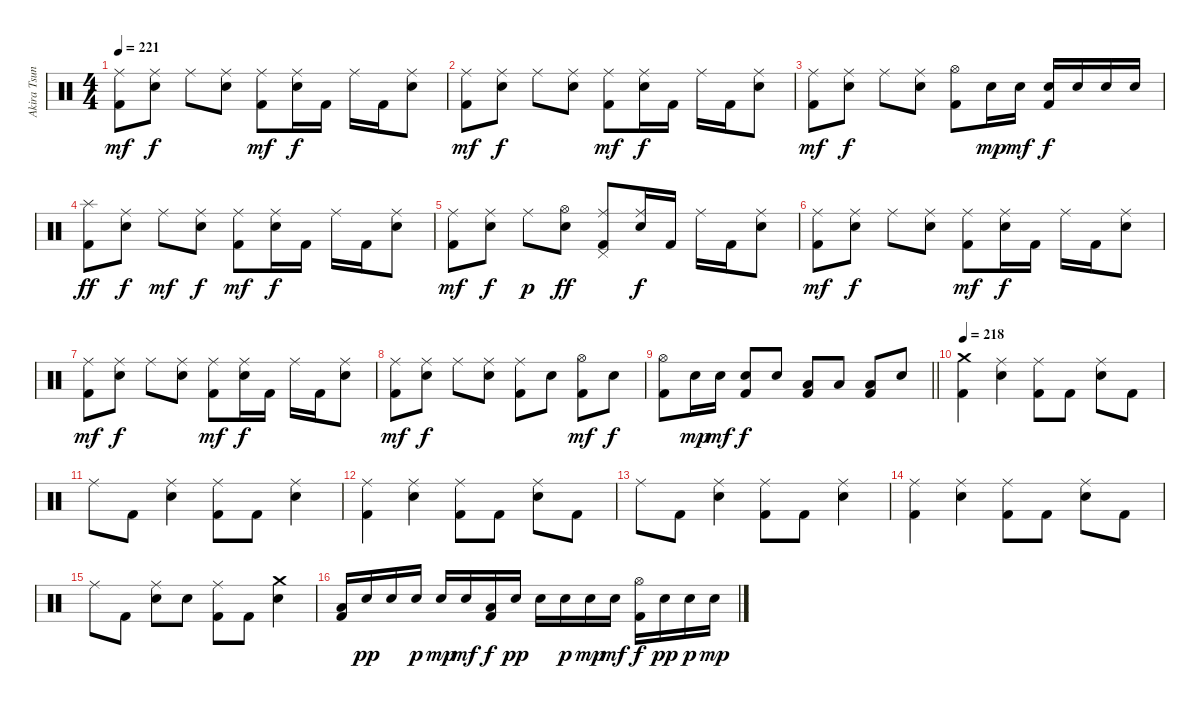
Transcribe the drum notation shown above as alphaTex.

\track ("Akira Tsuneoka" "Akira Tsun") {instrument percussion}
\staff {score}
\articulation defaults
\ts (4 4)
\tempo 221
\clef neutral
\ks c
("Ride (middle)" "Kick (hit) 2").8{dy mf} ("Ride (middle)" "Electric Snare (hit)").8{dy f} "Ride (middle)".8 ("Ride (middle)" "Electric Snare (hit)").8 ("Ride (middle)" "Kick (hit) 2").8{dy mf} ("Ride (middle)" "Electric Snare (hit)").16{dy f} "Kick (hit) 2".16 "Ride (middle)".16 "Kick (hit) 2".16 ("Ride (middle)" "Electric Snare (hit)").8 |
("Ride (middle)" "Kick (hit) 2").8{dy mf} ("Ride (middle)" "Electric Snare (hit)").8{dy f} "Ride (middle)".8 ("Ride (middle)" "Electric Snare (hit)").8 ("Ride (middle)" "Kick (hit) 2").8{dy mf} ("Ride (middle)" "Electric Snare (hit)").16{dy f} "Kick (hit) 2".16 "Ride (middle)".16 "Kick (hit) 2".16 ("Ride (middle)" "Electric Snare (hit)").8 |
("Ride (middle)" "Kick (hit) 2").8{dy mf} ("Ride (middle)" "Electric Snare (hit)").8{dy f} "Ride (middle)".8 ("Ride (middle)" "Electric Snare (hit)").8 ("Hi-Hat (open)" "Kick (hit) 2").8 "Electric Snare (hit)".16{dy mp} "Electric Snare (hit)".16{dy mf} ("Electric Snare (hit)" "Kick (hit) 2").16{dy f} "Electric Snare (hit)".16 "Electric Snare (hit)".16 "Electric Snare (hit)".16 |
("Splash (hit)" "Kick (hit) 2").8{dy ff} ("Ride (middle)" "Electric Snare (hit)").8{dy f} "Ride (middle)".8{dy mf} ("Ride (middle)" "Electric Snare (hit)").8{dy f} ("Ride (middle)" "Kick (hit) 2").8{dy mf} ("Ride (middle)" "Electric Snare (hit)").16{dy f} "Kick (hit) 2".16 "Ride (middle)".16 "Kick (hit) 2".16 ("Ride (middle)" "Electric Snare (hit)").8 |
("Ride (middle)" "Kick (hit) 2").8{dy mf} ("Ride (middle)" "Electric Snare (hit)").8{dy f} "Ride (middle)".8{dy p} ("Hi-Hat (open)" "Electric Snare (hit)").8{dy ff} ("Ride (middle)" "Pedal Hi-Hat (hit)" "Kick (hit) 2").8 ("Ride (middle)" "Electric Snare (hit)").16{dy f} "Kick (hit) 2".16 "Ride (middle)".16 "Kick (hit) 2".16 ("Ride (middle)" "Electric Snare (hit)").8 |
("Ride (middle)" "Kick (hit) 2").8{dy mf} ("Ride (middle)" "Electric Snare (hit)").8{dy f} "Ride (middle)".8 ("Ride (middle)" "Electric Snare (hit)").8 ("Ride (middle)" "Kick (hit) 2").8{dy mf} ("Ride (middle)" "Electric Snare (hit)").16{dy f} "Kick (hit) 2".16 "Ride (middle)".16 "Kick (hit) 2".16 ("Ride (middle)" "Electric Snare (hit)").8 |
("Ride (middle)" "Kick (hit) 2").8{dy mf} ("Ride (middle)" "Electric Snare (hit)").8{dy f} "Ride (middle)".8 ("Ride (middle)" "Electric Snare (hit)").8 ("Ride (middle)" "Kick (hit) 2").8{dy mf} ("Ride (middle)" "Electric Snare (hit)").16{dy f} "Kick (hit) 2".16 "Ride (middle)".16 "Kick (hit) 2".16 ("Ride (middle)" "Electric Snare (hit)").8 |
("Ride (middle)" "Kick (hit) 2").8{dy mf} ("Ride (middle)" "Electric Snare (hit)").8{dy f} "Ride (middle)".8 ("Ride (middle)" "Electric Snare (hit)").8 ("Ride (middle)" "Kick (hit) 2").8 "Electric Snare (hit)".8 ("Hi-Hat (open)" "Kick (hit) 2").8{dy mf} "Electric Snare (hit)".8{dy f} |
\barLineRight lightlight
("Hi-Hat (open)" "Kick (hit) 2").8 "Electric Snare (hit)".16{dy mp} "Electric Snare (hit)".16{dy mf} ("Electric Snare (hit)" "Kick (hit) 2").8{dy f} "Electric Snare (hit)".8 ("Low Tom (hit)" "Kick (hit) 2").8 "Low Tom (hit)".8 ("Low Floor Tom (hit)" "Kick (hit) 2").8 "Electric Snare (hit)".8 |
\section ("" "")
\tempo 218
("Crash medium (hit)" "Kick (hit) 2").4 ("Ride (middle)" "Electric Snare (hit)").4 ("Ride (middle)" "Kick (hit) 2").8 "Kick (hit) 2".8 ("Ride (middle)" "Electric Snare (hit)").8 "Kick (hit) 2".8 |
"Ride (middle)".8 "Kick (hit) 2".8 ("Ride (middle)" "Electric Snare (hit)").4 ("Ride (middle)" "Kick (hit) 2").8 "Kick (hit) 2".8 ("Ride (middle)" "Electric Snare (hit)").4 |
("Ride (middle)" "Kick (hit) 2").4 ("Ride (middle)" "Electric Snare (hit)").4 ("Ride (middle)" "Kick (hit) 2").8 "Kick (hit) 2".8 ("Ride (middle)" "Electric Snare (hit)").8 "Kick (hit) 2".8 |
"Ride (middle)".8 "Kick (hit) 2".8 ("Ride (middle)" "Electric Snare (hit)").4 ("Ride (middle)" "Kick (hit) 2").8 "Kick (hit) 2".8 ("Ride (middle)" "Electric Snare (hit)").4 |
("Ride (middle)" "Kick (hit) 2").4 ("Ride (middle)" "Electric Snare (hit)").4 ("Ride (middle)" "Kick (hit) 2").8 "Kick (hit) 2".8 ("Ride (middle)" "Electric Snare (hit)").8 "Kick (hit) 2".8 |
"Ride (middle)".8 "Kick (hit) 2".8 ("Ride (middle)" "Electric Snare (hit)").8 "Electric Snare (hit)".8 ("Ride (middle)" "Kick (hit) 2").8 "Kick (hit) 2".8 ("Crash medium (hit)" "Electric Snare (hit)").4 |
("Low Floor Tom (hit)" "Kick (hit) 2").16 "Electric Snare (hit)".16{dy pp} "Electric Snare (hit)".16 "Electric Snare (hit)".16{dy p} "Electric Snare (hit)".16{dy mp} "Electric Snare (hit)".16{dy mf} ("Low Floor Tom (hit)" "Kick (hit) 2").16{dy f} "Electric Snare (hit)".16{dy pp} "Electric Snare (hit)".16 "Electric Snare (hit)".16{dy p} "Electric Snare (hit)".16{dy mp} "Electric Snare (hit)".16{dy mf} ("Hi-Hat (open)" "Kick (hit) 2").16{dy f} "Electric Snare (hit)".16{dy pp} "Electric Snare (hit)".16{dy p} "Electric Snare (hit)".16{dy mp}
